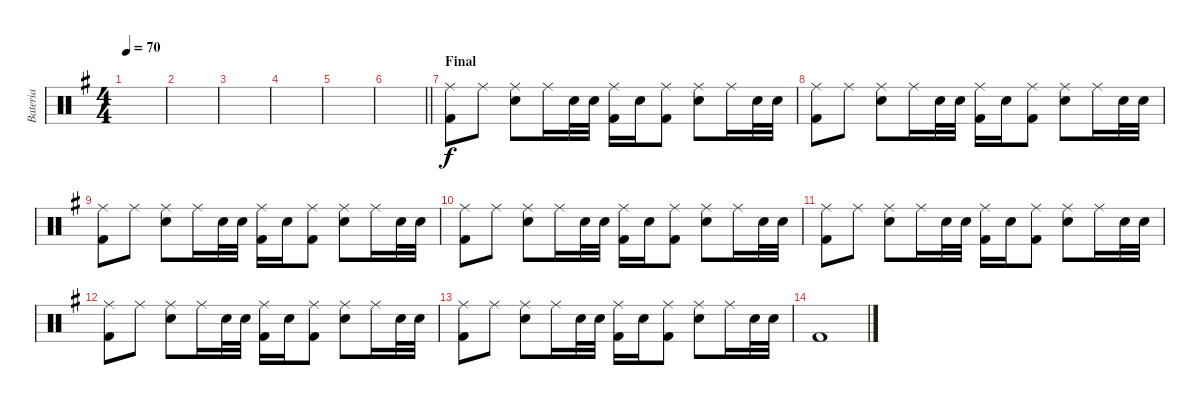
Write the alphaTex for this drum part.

\track ("Bateria" "Bateria") {instrument percussion}
\staff {score}
\articulation defaults
\ts (4 4)
\tempo 70
\clef neutral
\ks g
|
|
|
|
|
\barLineRight lightlight
|
\section ("" "Final")
("Kick (hit) 2" "Ride (middle)").8 "Ride (middle)".8 ("Electric Snare (hit)" "Ride (middle)").8 "Ride (middle)".16 "Electric Snare (hit)".32 "Electric Snare (hit)".32 ("Kick (hit) 2" "Ride (middle)").16 "Electric Snare (hit)".16 ("Kick (hit) 2" "Ride (middle)").8 ("Electric Snare (hit)" "Ride (middle)").8 "Ride (middle)".16 "Electric Snare (hit)".32 "Electric Snare (hit)".32 |
("Kick (hit) 2" "Ride (middle)").8 "Ride (middle)".8 ("Electric Snare (hit)" "Ride (middle)").8 "Ride (middle)".16 "Electric Snare (hit)".32 "Electric Snare (hit)".32 ("Kick (hit) 2" "Ride (middle)").16 "Electric Snare (hit)".16 ("Kick (hit) 2" "Ride (middle)").8 ("Electric Snare (hit)" "Ride (middle)").8 "Ride (middle)".16 "Electric Snare (hit)".32 "Electric Snare (hit)".32 |
("Kick (hit) 2" "Ride (middle)").8 "Ride (middle)".8 ("Electric Snare (hit)" "Ride (middle)").8 "Ride (middle)".16 "Electric Snare (hit)".32 "Electric Snare (hit)".32 ("Kick (hit) 2" "Ride (middle)").16 "Electric Snare (hit)".16 ("Kick (hit) 2" "Ride (middle)").8 ("Electric Snare (hit)" "Ride (middle)").8 "Ride (middle)".16 "Electric Snare (hit)".32 "Electric Snare (hit)".32 |
("Kick (hit) 2" "Ride (middle)").8 "Ride (middle)".8 ("Electric Snare (hit)" "Ride (middle)").8 "Ride (middle)".16 "Electric Snare (hit)".32 "Electric Snare (hit)".32 ("Kick (hit) 2" "Ride (middle)").16 "Electric Snare (hit)".16 ("Kick (hit) 2" "Ride (middle)").8 ("Electric Snare (hit)" "Ride (middle)").8 "Ride (middle)".16 "Electric Snare (hit)".32 "Electric Snare (hit)".32 |
("Kick (hit) 2" "Ride (middle)").8 "Ride (middle)".8 ("Electric Snare (hit)" "Ride (middle)").8 "Ride (middle)".16 "Electric Snare (hit)".32 "Electric Snare (hit)".32 ("Kick (hit) 2" "Ride (middle)").16 "Electric Snare (hit)".16 ("Kick (hit) 2" "Ride (middle)").8 ("Electric Snare (hit)" "Ride (middle)").8 "Ride (middle)".16 "Electric Snare (hit)".32 "Electric Snare (hit)".32 |
("Kick (hit) 2" "Ride (middle)").8 "Ride (middle)".8 ("Electric Snare (hit)" "Ride (middle)").8 "Ride (middle)".16 "Electric Snare (hit)".32 "Electric Snare (hit)".32 ("Kick (hit) 2" "Ride (middle)").16 "Electric Snare (hit)".16 ("Kick (hit) 2" "Ride (middle)").8 ("Electric Snare (hit)" "Ride (middle)").8 "Ride (middle)".16 "Electric Snare (hit)".32 "Electric Snare (hit)".32 |
("Kick (hit) 2" "Ride (middle)").8 "Ride (middle)".8 ("Electric Snare (hit)" "Ride (middle)").8 "Ride (middle)".16 "Electric Snare (hit)".32 "Electric Snare (hit)".32 ("Kick (hit) 2" "Ride (middle)").16 "Electric Snare (hit)".16 ("Kick (hit) 2" "Ride (middle)").8 ("Electric Snare (hit)" "Ride (middle)").8 "Ride (middle)".16 "Electric Snare (hit)".32 "Electric Snare (hit)".32 |
"Kick (hit) 2".1
